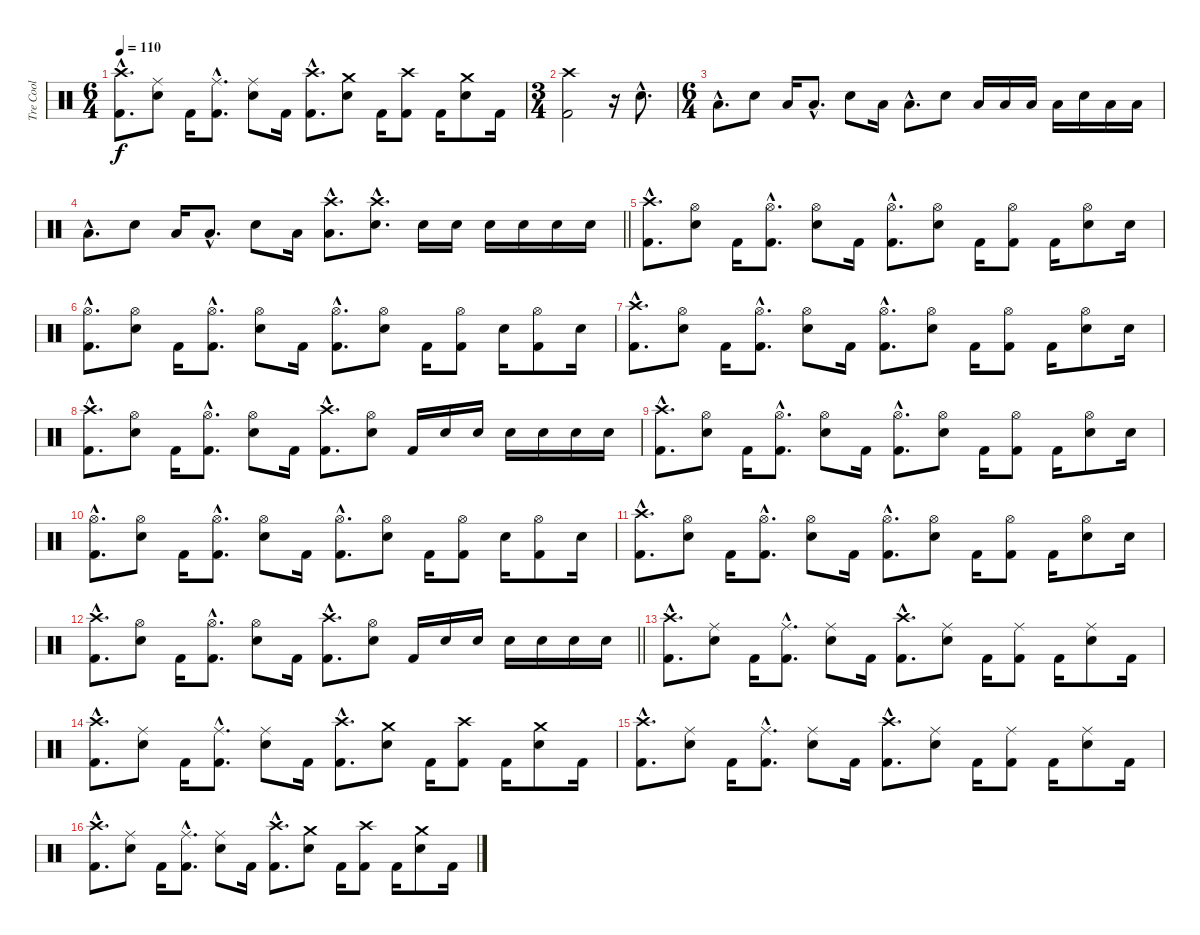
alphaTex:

\track ("Tre Cool" "Tre Cool") {instrument percussion}
\staff {score}
\articulation defaults
\ts (6 4)
\tempo 110
\clef neutral
\ks c
("Crash high (hit)"{hac} "Kick (hit) 2"{hac}).8{d dy f} ("Ride (middle)" "Electric Snare (hit)").8 "Kick (hit) 2".16 ("Ride (middle)"{hac} "Kick (hit) 2"{hac}).8{d} ("Ride (middle)" "Electric Snare (hit)").8 "Kick (hit) 2".16 ("Crash high (hit)"{hac} "Kick (hit) 2"{hac}).8{d} ("Crash medium (hit)" "Electric Snare (hit)").8 "Kick (hit) 2".16 ("Crash high (hit)" "Kick (hit) 2").8 "Kick (hit) 2".16 ("Crash medium (hit)" "Electric Snare (hit)").8 "Kick (hit) 2".16 |
\ts (3 4)
("Crash high (hit)" "Kick (hit) 2").2 r.16 "Electric Snare (hit)"{hac}.8{d} |
\ts (6 4)
"Low Floor Tom (hit)"{hac}.8{d} "Electric Snare (hit)".8 "Low Floor Tom (hit)".16 "Low Floor Tom (hit)"{hac}.8{d} "Electric Snare (hit)".8 "Low Floor Tom (hit)".16 "Low Floor Tom (hit)"{hac}.8{d} "Electric Snare (hit)".8 "Low Floor Tom (hit)".16 "Low Floor Tom (hit)".16 "Low Floor Tom (hit)".16 "Low Floor Tom (hit)".16 "Electric Snare (hit)".16 "Low Floor Tom (hit)".16 "Low Floor Tom (hit)".16 |
\barLineRight lightlight "Low Floor Tom (hit)"{hac}.8{d} "Electric Snare (hit)".8 "Low Floor Tom (hit)".16 "Low Floor Tom (hit)"{hac}.8{d} "Electric Snare (hit)".8 "Low Floor Tom (hit)".16
("Crash high (hit)"{hac} "Low Floor Tom (hit)"{hac}).8{d} ("Crash high (hit)"{hac} "Electric Snare (hit)"{hac}).8{d} "Electric Snare (hit)".16 "Electric Snare (hit)".16 "Electric Snare (hit)".16 "Electric Snare (hit)".16 "Electric Snare (hit)".16 "Electric Snare (hit)".16 |
("Crash high (hit)"{hac} "Kick (hit) 2"{hac}).8{d} ("Hi-Hat (open)" "Electric Snare (hit)").8 "Kick (hit) 2".16 ("Hi-Hat (open)"{hac} "Kick (hit) 2"{hac}).8{d} ("Hi-Hat (open)" "Electric Snare (hit)").8 "Kick (hit) 2".16 ("Hi-Hat (open)"{hac} "Kick (hit) 2"{hac}).8{d} ("Hi-Hat (open)" "Electric Snare (hit)").8 "Kick (hit) 2".16 ("Hi-Hat (open)" "Kick (hit) 2").8 "Kick (hit) 2".16 ("Hi-Hat (open)" "Electric Snare (hit)").8 "Electric Snare (hit)".16 |
("Hi-Hat (open)"{hac} "Kick (hit) 2"{hac}).8{d} ("Hi-Hat (open)" "Electric Snare (hit)").8 "Kick (hit) 2".16 ("Hi-Hat (open)"{hac} "Kick (hit) 2"{hac}).8{d} ("Hi-Hat (open)" "Electric Snare (hit)").8 "Kick (hit) 2".16 ("Hi-Hat (open)"{hac} "Kick (hit) 2"{hac}).8{d} ("Hi-Hat (open)" "Electric Snare (hit)").8 "Kick (hit) 2".16 ("Hi-Hat (open)" "Kick (hit) 2").8 "Electric Snare (hit)".16 ("Hi-Hat (open)" "Kick (hit) 2").8 "Electric Snare (hit)".16 |
("Crash high (hit)"{hac} "Kick (hit) 2"{hac}).8{d} ("Hi-Hat (open)" "Electric Snare (hit)").8 "Kick (hit) 2".16 ("Hi-Hat (open)"{hac} "Kick (hit) 2"{hac}).8{d} ("Hi-Hat (open)" "Electric Snare (hit)").8 "Kick (hit) 2".16 ("Hi-Hat (open)"{hac} "Kick (hit) 2"{hac}).8{d} ("Hi-Hat (open)" "Electric Snare (hit)").8 "Kick (hit) 2".16 ("Hi-Hat (open)" "Kick (hit) 2").8 "Kick (hit) 2".16 ("Hi-Hat (open)" "Electric Snare (hit)").8 "Electric Snare (hit)".16 |
("Crash high (hit)"{hac} "Kick (hit) 2"{hac}).8{d} ("Hi-Hat (open)" "Electric Snare (hit)").8 "Kick (hit) 2".16 ("Hi-Hat (open)"{hac} "Kick (hit) 2"{hac}).8{d} ("Hi-Hat (open)" "Electric Snare (hit)").8 "Kick (hit) 2".16 ("Crash high (hit)"{hac} "Kick (hit) 2"{hac}).8{d} ("Hi-Hat (open)" "Electric Snare (hit)").8 "Kick (hit) 2".16 "Electric Snare (hit)".16 "Electric Snare (hit)".16 "Electric Snare (hit)".16 "Electric Snare (hit)".16 "Electric Snare (hit)".16 "Electric Snare (hit)".16 |
("Crash high (hit)"{hac} "Kick (hit) 2"{hac}).8{d} ("Hi-Hat (open)" "Electric Snare (hit)").8 "Kick (hit) 2".16 ("Hi-Hat (open)"{hac} "Kick (hit) 2"{hac}).8{d} ("Hi-Hat (open)" "Electric Snare (hit)").8 "Kick (hit) 2".16 ("Hi-Hat (open)"{hac} "Kick (hit) 2"{hac}).8{d} ("Hi-Hat (open)" "Electric Snare (hit)").8 "Kick (hit) 2".16 ("Hi-Hat (open)" "Kick (hit) 2").8 "Kick (hit) 2".16 ("Hi-Hat (open)" "Electric Snare (hit)").8 "Electric Snare (hit)".16 |
("Hi-Hat (open)"{hac} "Kick (hit) 2"{hac}).8{d} ("Hi-Hat (open)" "Electric Snare (hit)").8 "Kick (hit) 2".16 ("Hi-Hat (open)"{hac} "Kick (hit) 2"{hac}).8{d} ("Hi-Hat (open)" "Electric Snare (hit)").8 "Kick (hit) 2".16 ("Hi-Hat (open)"{hac} "Kick (hit) 2"{hac}).8{d} ("Hi-Hat (open)" "Electric Snare (hit)").8 "Kick (hit) 2".16 ("Hi-Hat (open)" "Kick (hit) 2").8 "Electric Snare (hit)".16 ("Hi-Hat (open)" "Kick (hit) 2").8 "Electric Snare (hit)".16 |
("Crash high (hit)"{hac} "Kick (hit) 2"{hac}).8{d} ("Hi-Hat (open)" "Electric Snare (hit)").8 "Kick (hit) 2".16 ("Hi-Hat (open)"{hac} "Kick (hit) 2"{hac}).8{d} ("Hi-Hat (open)" "Electric Snare (hit)").8 "Kick (hit) 2".16 ("Hi-Hat (open)"{hac} "Kick (hit) 2"{hac}).8{d} ("Hi-Hat (open)" "Electric Snare (hit)").8 "Kick (hit) 2".16 ("Hi-Hat (open)" "Kick (hit) 2").8 "Kick (hit) 2".16 ("Hi-Hat (open)" "Electric Snare (hit)").8 "Electric Snare (hit)".16 |
\barLineRight lightlight
("Crash high (hit)"{hac} "Kick (hit) 2"{hac}).8{d} ("Hi-Hat (open)" "Electric Snare (hit)").8 "Kick (hit) 2".16 ("Hi-Hat (open)"{hac} "Kick (hit) 2"{hac}).8{d} ("Hi-Hat (open)" "Electric Snare (hit)").8 "Kick (hit) 2".16 ("Crash high (hit)"{hac} "Kick (hit) 2"{hac}).8{d} ("Hi-Hat (open)" "Electric Snare (hit)").8 "Kick (hit) 2".16 "Electric Snare (hit)".16 "Electric Snare (hit)".16 "Electric Snare (hit)".16 "Electric Snare (hit)".16 "Electric Snare (hit)".16 "Electric Snare (hit)".16 |
("Crash high (hit)"{hac} "Kick (hit) 2"{hac}).8{d} ("Ride (middle)" "Electric Snare (hit)").8 "Kick (hit) 2".16 ("Ride (middle)"{hac} "Kick (hit) 2"{hac}).8{d} ("Ride (middle)" "Electric Snare (hit)").8 "Kick (hit) 2".16 ("Crash high (hit)"{hac} "Kick (hit) 2"{hac}).8{d} ("Ride (middle)" "Electric Snare (hit)").8 "Kick (hit) 2".16 ("Ride (middle)" "Kick (hit) 2").8 "Kick (hit) 2".16 ("Ride (middle)" "Electric Snare (hit)").8 "Kick (hit) 2".16 |
("Crash high (hit)"{hac} "Kick (hit) 2"{hac}).8{d} ("Ride (middle)" "Electric Snare (hit)").8 "Kick (hit) 2".16 ("Ride (middle)"{hac} "Kick (hit) 2"{hac}).8{d} ("Ride (middle)" "Electric Snare (hit)").8 "Kick (hit) 2".16 ("Crash high (hit)"{hac} "Kick (hit) 2"{hac}).8{d} ("Crash medium (hit)" "Electric Snare (hit)").8 "Kick (hit) 2".16 ("Crash high (hit)" "Kick (hit) 2").8 "Kick (hit) 2".16 ("Crash medium (hit)" "Electric Snare (hit)").8 "Kick (hit) 2".16 |
("Crash high (hit)"{hac} "Kick (hit) 2"{hac}).8{d} ("Ride (middle)" "Electric Snare (hit)").8 "Kick (hit) 2".16 ("Ride (middle)"{hac} "Kick (hit) 2"{hac}).8{d} ("Ride (middle)" "Electric Snare (hit)").8 "Kick (hit) 2".16 ("Crash high (hit)"{hac} "Kick (hit) 2"{hac}).8{d} ("Ride (middle)" "Electric Snare (hit)").8 "Kick (hit) 2".16 ("Ride (middle)" "Kick (hit) 2").8 "Kick (hit) 2".16 ("Ride (middle)" "Electric Snare (hit)").8 "Kick (hit) 2".16 |
("Crash high (hit)"{hac} "Kick (hit) 2"{hac}).8{d} ("Ride (middle)" "Electric Snare (hit)").8 "Kick (hit) 2".16 ("Ride (middle)"{hac} "Kick (hit) 2"{hac}).8{d} ("Ride (middle)" "Electric Snare (hit)").8 "Kick (hit) 2".16 ("Crash high (hit)"{hac} "Kick (hit) 2"{hac}).8{d} ("Crash medium (hit)" "Electric Snare (hit)").8 "Kick (hit) 2".16 ("Crash high (hit)" "Kick (hit) 2").8 "Kick (hit) 2".16 ("Crash medium (hit)" "Electric Snare (hit)").8 "Kick (hit) 2".16
